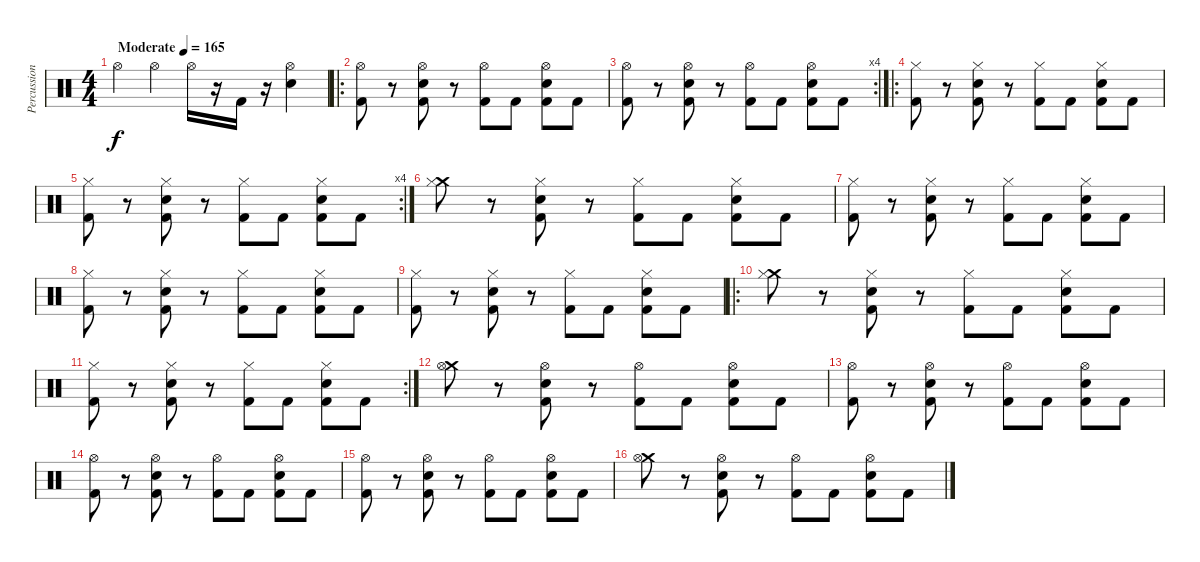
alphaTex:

\track ("Percussion" "Percussion") {instrument percussion}
\staff {score}
\articulation defaults
\ts (4 4)
\tempo (165 "Moderate")
\clef neutral
\ks c "Hi-Hat (open)".4{dy f} "Hi-Hat (open)".4 "Hi-Hat (open)".16
r.16 "Kick (hit) 2".16 r.16 ("Hi-Hat (open)" "Electric Snare (hit)").4 |
\ro
("Kick (hit) 2" "Hi-Hat (open)").8 r.8 ("Kick (hit) 2" "Electric Snare (hit)" "Hi-Hat (open)").8 r.8 ("Kick (hit) 2" "Hi-Hat (open)").8 "Kick (hit) 2".8 ("Kick (hit) 2" "Electric Snare (hit)" "Hi-Hat (open)").8 "Kick (hit) 2".8 |
\rc 4
("Kick (hit) 2" "Hi-Hat (open)").8 r.8 ("Kick (hit) 2" "Electric Snare (hit)" "Hi-Hat (open)").8 r.8 ("Kick (hit) 2" "Hi-Hat (open)").8 "Kick (hit) 2".8 ("Kick (hit) 2" "Electric Snare (hit)" "Hi-Hat (open)").8 "Kick (hit) 2".8 |
\ro
("Kick (hit) 2" "Hi-Hat (closed)").8 r.8 ("Kick (hit) 2" "Electric Snare (hit)" "Hi-Hat (closed)").8 r.8 ("Kick (hit) 2" "Hi-Hat (closed)").8 "Kick (hit) 2".8 ("Kick (hit) 2" "Electric Snare (hit)" "Hi-Hat (closed)").8 "Kick (hit) 2".8 |
\rc 4
("Kick (hit) 2" "Hi-Hat (closed)").8 r.8 ("Kick (hit) 2" "Electric Snare (hit)" "Hi-Hat (closed)").8 r.8 ("Kick (hit) 2" "Hi-Hat (closed)").8 "Kick (hit) 2".8 ("Kick (hit) 2" "Electric Snare (hit)" "Hi-Hat (closed)").8 "Kick (hit) 2".8 |
("Crash medium (hit)" "Hi-Hat (closed)").8 r.8 ("Kick (hit) 2" "Electric Snare (hit)" "Hi-Hat (closed)").8 r.8 ("Kick (hit) 2" "Hi-Hat (closed)").8 "Kick (hit) 2".8 ("Kick (hit) 2" "Electric Snare (hit)" "Hi-Hat (closed)").8 "Kick (hit) 2".8 |
("Kick (hit) 2" "Hi-Hat (closed)").8 r.8 ("Kick (hit) 2" "Electric Snare (hit)" "Hi-Hat (closed)").8 r.8 ("Kick (hit) 2" "Hi-Hat (closed)").8 "Kick (hit) 2".8 ("Kick (hit) 2" "Electric Snare (hit)" "Hi-Hat (closed)").8 "Kick (hit) 2".8 |
("Kick (hit) 2" "Hi-Hat (closed)").8 r.8 ("Kick (hit) 2" "Electric Snare (hit)" "Hi-Hat (closed)").8 r.8 ("Kick (hit) 2" "Hi-Hat (closed)").8 "Kick (hit) 2".8 ("Kick (hit) 2" "Electric Snare (hit)" "Hi-Hat (closed)").8 "Kick (hit) 2".8 |
("Kick (hit) 2" "Hi-Hat (closed)").8 r.8 ("Kick (hit) 2" "Electric Snare (hit)" "Hi-Hat (closed)").8 r.8 ("Kick (hit) 2" "Hi-Hat (closed)").8 "Kick (hit) 2".8 ("Kick (hit) 2" "Electric Snare (hit)" "Hi-Hat (closed)").8 "Kick (hit) 2".8 |
\ro
("Crash medium (hit)" "Hi-Hat (closed)").8 r.8 ("Kick (hit) 2" "Electric Snare (hit)" "Hi-Hat (closed)").8 r.8 ("Kick (hit) 2" "Hi-Hat (closed)").8 "Kick (hit) 2".8 ("Kick (hit) 2" "Electric Snare (hit)" "Hi-Hat (closed)").8 "Kick (hit) 2".8 |
\rc 2
("Kick (hit) 2" "Hi-Hat (closed)").8 r.8 ("Kick (hit) 2" "Electric Snare (hit)" "Hi-Hat (closed)").8 r.8 ("Kick (hit) 2" "Hi-Hat (closed)").8 "Kick (hit) 2".8 ("Kick (hit) 2" "Electric Snare (hit)" "Hi-Hat (closed)").8 "Kick (hit) 2".8 |
("Crash medium (hit)" "Hi-Hat (open)").8 r.8 ("Kick (hit) 2" "Electric Snare (hit)" "Hi-Hat (open)").8 r.8 ("Kick (hit) 2" "Hi-Hat (open)").8 "Kick (hit) 2".8 ("Kick (hit) 2" "Electric Snare (hit)" "Hi-Hat (open)").8 "Kick (hit) 2".8 |
("Kick (hit) 2" "Hi-Hat (open)").8 r.8 ("Kick (hit) 2" "Electric Snare (hit)" "Hi-Hat (open)").8 r.8 ("Kick (hit) 2" "Hi-Hat (open)").8 "Kick (hit) 2".8 ("Kick (hit) 2" "Electric Snare (hit)" "Hi-Hat (open)").8 "Kick (hit) 2".8 |
("Kick (hit) 2" "Hi-Hat (open)").8 r.8 ("Kick (hit) 2" "Electric Snare (hit)" "Hi-Hat (open)").8 r.8 ("Kick (hit) 2" "Hi-Hat (open)").8 "Kick (hit) 2".8 ("Kick (hit) 2" "Electric Snare (hit)" "Hi-Hat (open)").8 "Kick (hit) 2".8 |
("Kick (hit) 2" "Hi-Hat (open)").8 r.8 ("Kick (hit) 2" "Electric Snare (hit)" "Hi-Hat (open)").8 r.8 ("Kick (hit) 2" "Hi-Hat (open)").8 "Kick (hit) 2".8 ("Kick (hit) 2" "Electric Snare (hit)" "Hi-Hat (open)").8 "Kick (hit) 2".8 |
("Crash medium (hit)" "Hi-Hat (open)").8 r.8 ("Kick (hit) 2" "Electric Snare (hit)" "Hi-Hat (open)").8 r.8 ("Kick (hit) 2" "Hi-Hat (open)").8 "Kick (hit) 2".8 ("Kick (hit) 2" "Electric Snare (hit)" "Hi-Hat (open)").8 "Kick (hit) 2".8
